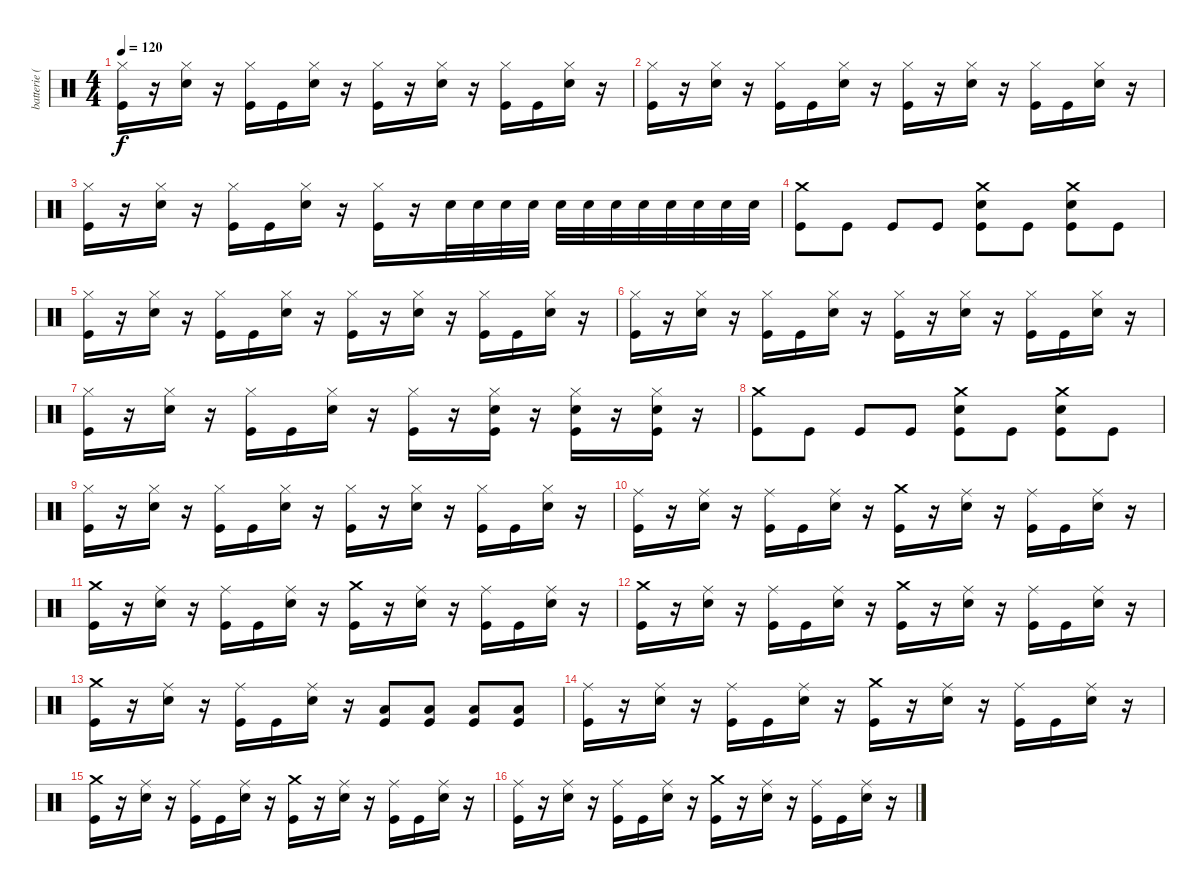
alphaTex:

\track ("batterie ( Yureesh ) " "batterie (") {instrument percussion}
\staff {score}
\articulation defaults
\ts (4 4)
\tempo 120
\clef neutral
\ks c
("Hi-Hat (closed)" "Kick (hit)").16{dy f} r.16 ("Hi-Hat (closed)" "Snare (hit) 2").16 r.16 ("Hi-Hat (closed)" "Kick (hit)").16 "Kick (hit)".16 ("Hi-Hat (closed)" "Snare (hit) 2").16 r.16 ("Hi-Hat (closed)" "Kick (hit)").16 r.16 ("Hi-Hat (closed)" "Snare (hit) 2").16 r.16 ("Hi-Hat (closed)" "Kick (hit)").16 "Kick (hit)".16 ("Hi-Hat (closed)" "Snare (hit) 2").16 r.16 |
("Hi-Hat (closed)" "Kick (hit)").16 r.16 ("Hi-Hat (closed)" "Snare (hit) 2").16 r.16 ("Hi-Hat (closed)" "Kick (hit)").16 "Kick (hit)".16 ("Hi-Hat (closed)" "Snare (hit) 2").16 r.16 ("Hi-Hat (closed)" "Kick (hit)").16 r.16 ("Hi-Hat (closed)" "Snare (hit) 2").16 r.16 ("Hi-Hat (closed)" "Kick (hit)").16 "Kick (hit)".16 ("Hi-Hat (closed)" "Snare (hit) 2").16 r.16 |
("Hi-Hat (closed)" "Kick (hit)").16 r.16 ("Hi-Hat (closed)" "Snare (hit) 2").16 r.16 ("Hi-Hat (closed)" "Kick (hit)").16 "Kick (hit)".16 ("Hi-Hat (closed)" "Snare (hit) 2").16 r.16 ("Hi-Hat (closed)" "Kick (hit)").16 r.16 "Snare (hit) 2".32 "Snare (hit) 2".32 "Snare (hit) 2".32 "Snare (hit) 2".32 "Snare (hit) 2".32 "Snare (hit) 2".32 "Snare (hit) 2".32 "Snare (hit) 2".32 "Snare (hit) 2".32 "Snare (hit) 2".32 "Snare (hit) 2".32 "Snare (hit) 2".32 |
("Crash medium (hit)" "Kick (hit)").8 "Kick (hit)".8 "Kick (hit)".8 "Kick (hit)".8 ("Crash medium (hit)" "Snare (hit) 2" "Kick (hit)").8 "Kick (hit)".8 ("Crash medium (hit)" "Snare (hit) 2" "Kick (hit)").8 "Kick (hit)".8 |
("Hi-Hat (closed)" "Kick (hit)").16 r.16 ("Hi-Hat (closed)" "Snare (hit) 2").16 r.16 ("Hi-Hat (closed)" "Kick (hit)").16 "Kick (hit)".16 ("Hi-Hat (closed)" "Snare (hit) 2").16 r.16 ("Hi-Hat (closed)" "Kick (hit)").16 r.16 ("Hi-Hat (closed)" "Snare (hit) 2").16 r.16 ("Hi-Hat (closed)" "Kick (hit)").16 "Kick (hit)".16 ("Hi-Hat (closed)" "Snare (hit) 2").16 r.16 |
("Hi-Hat (closed)" "Kick (hit)").16 r.16 ("Hi-Hat (closed)" "Snare (hit) 2").16 r.16 ("Hi-Hat (closed)" "Kick (hit)").16 "Kick (hit)".16 ("Hi-Hat (closed)" "Snare (hit) 2").16 r.16 ("Hi-Hat (closed)" "Kick (hit)").16 r.16 ("Hi-Hat (closed)" "Snare (hit) 2").16 r.16 ("Hi-Hat (closed)" "Kick (hit)").16 "Kick (hit)".16 ("Hi-Hat (closed)" "Snare (hit) 2").16 r.16 |
("Hi-Hat (closed)" "Kick (hit)").16 r.16 ("Hi-Hat (closed)" "Snare (hit) 2").16 r.16 ("Hi-Hat (closed)" "Kick (hit)").16 "Kick (hit)".16 ("Hi-Hat (closed)" "Snare (hit) 2").16 r.16 ("Hi-Hat (closed)" "Kick (hit)").16 r.16 ("Hi-Hat (closed)" "Snare (hit) 2" "Kick (hit)").16 r.16 ("Hi-Hat (closed)" "Snare (hit) 2" "Kick (hit)").16 r.16 ("Hi-Hat (closed)" "Snare (hit) 2" "Kick (hit)").16 r.16 |
("Crash medium (hit)" "Kick (hit)").8 "Kick (hit)".8 "Kick (hit)".8 "Kick (hit)".8 ("Crash medium (hit)" "Snare (hit) 2" "Kick (hit)").8 "Kick (hit)".8 ("Crash medium (hit)" "Snare (hit) 2" "Kick (hit)").8 "Kick (hit)".8 |
("Hi-Hat (closed)" "Kick (hit)").16 r.16 ("Hi-Hat (closed)" "Snare (hit) 2").16 r.16 ("Hi-Hat (closed)" "Kick (hit)").16 "Kick (hit)".16 ("Hi-Hat (closed)" "Snare (hit) 2").16 r.16 ("Hi-Hat (closed)" "Kick (hit)").16 r.16 ("Hi-Hat (closed)" "Snare (hit) 2").16 r.16 ("Hi-Hat (closed)" "Kick (hit)").16 "Kick (hit)".16 ("Hi-Hat (closed)" "Snare (hit) 2").16 r.16 |
("Ride (middle)" "Kick (hit)").16 r.16 ("Ride (middle)" "Snare (hit) 2").16 r.16 ("Ride (middle)" "Kick (hit)").16 "Kick (hit)".16 ("Ride (middle)" "Snare (hit) 2").16 r.16 ("Crash medium (hit)" "Kick (hit)").16 r.16 ("Ride (middle)" "Snare (hit) 2").16 r.16 ("Ride (middle)" "Kick (hit)").16 "Kick (hit)".16 ("Ride (middle)" "Snare (hit) 2").16 r.16 |
("Crash medium (hit)" "Kick (hit)").16 r.16 ("Ride (middle)" "Snare (hit) 2").16 r.16 ("Ride (middle)" "Kick (hit)").16 "Kick (hit)".16 ("Ride (middle)" "Snare (hit) 2").16 r.16 ("Crash medium (hit)" "Kick (hit)").16 r.16 ("Ride (middle)" "Snare (hit) 2").16 r.16 ("Ride (middle)" "Kick (hit)").16 "Kick (hit)".16 ("Ride (middle)" "Snare (hit) 2").16 r.16 |
("Crash medium (hit)" "Kick (hit)").16 r.16 ("Ride (middle)" "Snare (hit) 2").16 r.16 ("Ride (middle)" "Kick (hit)").16 "Kick (hit)".16 ("Ride (middle)" "Snare (hit) 2").16 r.16 ("Crash medium (hit)" "Kick (hit)").16 r.16 ("Ride (middle)" "Snare (hit) 2").16 r.16 ("Ride (middle)" "Kick (hit)").16 "Kick (hit)".16 ("Ride (middle)" "Snare (hit) 2").16 r.16 |
("Crash medium (hit)" "Kick (hit)").16 r.16 ("Ride (middle)" "Snare (hit) 2").16 r.16 ("Ride (middle)" "Kick (hit)").16 "Kick (hit)".16 ("Ride (middle)" "Snare (hit) 2").16 r.16 ("Low Floor Tom (hit)" "Kick (hit)").8 ("Low Floor Tom (hit)" "Kick (hit)").8 ("Low Floor Tom (hit)" "Kick (hit)").8 ("Low Floor Tom (hit)" "Kick (hit)").8 |
("Ride (middle)" "Kick (hit)").16 r.16 ("Ride (middle)" "Snare (hit) 2").16 r.16 ("Ride (middle)" "Kick (hit)").16 "Kick (hit)".16 ("Ride (middle)" "Snare (hit) 2").16 r.16 ("Crash medium (hit)" "Kick (hit)").16 r.16 ("Ride (middle)" "Snare (hit) 2").16 r.16 ("Ride (middle)" "Kick (hit)").16 "Kick (hit)".16 ("Ride (middle)" "Snare (hit) 2").16 r.16 |
("Crash medium (hit)" "Kick (hit)").16 r.16 ("Ride (middle)" "Snare (hit) 2").16 r.16 ("Ride (middle)" "Kick (hit)").16 "Kick (hit)".16 ("Ride (middle)" "Snare (hit) 2").16 r.16 ("Crash medium (hit)" "Kick (hit)").16 r.16 ("Ride (middle)" "Snare (hit) 2").16 r.16 ("Ride (middle)" "Kick (hit)").16 "Kick (hit)".16 ("Ride (middle)" "Snare (hit) 2").16 r.16 |
("Ride (middle)" "Kick (hit)").16 r.16 ("Ride (middle)" "Snare (hit) 2").16 r.16 ("Ride (middle)" "Kick (hit)").16 "Kick (hit)".16 ("Ride (middle)" "Snare (hit) 2").16 r.16 ("Crash medium (hit)" "Kick (hit)").16 r.16 ("Ride (middle)" "Snare (hit) 2").16 r.16 ("Ride (middle)" "Kick (hit)").16 "Kick (hit)".16 ("Ride (middle)" "Snare (hit) 2").16 r.16
